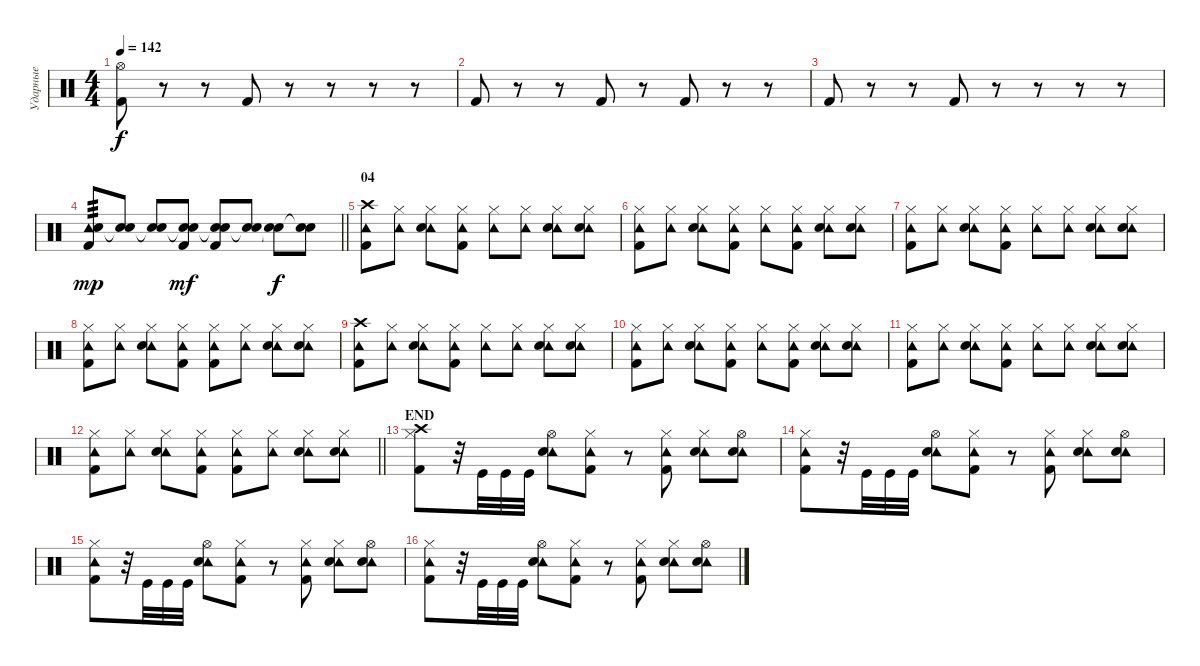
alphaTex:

\track ("Ударные" "Ударные") {instrument percussion}
\staff {score}
\articulation defaults
\ts (4 4)
\tempo 142
\clef neutral
\ks c
("Hi-Hat (open)" "Kick (hit) 2").8{dy f} r.8 r.8 "Kick (hit) 2".8 r.8 r.8 r.8 r.8 |
"Kick (hit) 2".8 r.8 r.8 "Kick (hit) 2".8 r.8 "Kick (hit) 2".8 r.8 r.8 |
"Kick (hit) 2".8 r.8 r.8 "Kick (hit) 2".8 r.8 r.8 r.8 r.8 |
\barLineRight lightlight
("Tambourine (hit)" "Electric Snare (hit)" "Kick (hit) 2").8{tp 3 dy mp} ("Snare (hit)"{t} "Electric Snare (hit)").8 ("Snare (hit)"{t} "Electric Snare (hit)").8 ("Snare (hit)"{t} "Electric Snare (hit)" "Kick (hit) 2").8{dy mf} ("Snare (hit)"{t} "Electric Snare (hit)" "Kick (hit) 2").8 ("Snare (hit)"{t} "Electric Snare (hit)").8 ("Snare (hit)"{t} "Electric Snare (hit)").8{dy f} ("Snare (hit)"{t} "Electric Snare (hit)").8 |
\section ("" "04")
("Crash high (hit)" "Tambourine (hit)" "Kick (hit) 2").8 ("Hi-Hat (closed)" "Tambourine (hit)").8 ("Hi-Hat (closed)" "Tambourine (hit)" "Electric Snare (hit)").8 ("Hi-Hat (closed)" "Tambourine (hit)" "Kick (hit) 2").8 ("Hi-Hat (closed)" "Tambourine (hit)").8 ("Hi-Hat (closed)" "Tambourine (hit)").8 ("Hi-Hat (closed)" "Tambourine (hit)" "Electric Snare (hit)").8 ("Hi-Hat (closed)" "Tambourine (hit)" "Electric Snare (hit)").8 |
("Hi-Hat (closed)" "Tambourine (hit)" "Kick (hit) 2").8 ("Hi-Hat (closed)" "Tambourine (hit)").8 ("Hi-Hat (closed)" "Tambourine (hit)" "Electric Snare (hit)").8 ("Hi-Hat (closed)" "Tambourine (hit)" "Kick (hit) 2").8 ("Hi-Hat (closed)" "Tambourine (hit)").8 ("Hi-Hat (closed)" "Tambourine (hit)" "Kick (hit) 2").8 ("Hi-Hat (closed)" "Tambourine (hit)" "Electric Snare (hit)").8 ("Hi-Hat (closed)" "Tambourine (hit)" "Electric Snare (hit)").8 |
("Hi-Hat (closed)" "Tambourine (hit)" "Kick (hit) 2").8 ("Hi-Hat (closed)" "Tambourine (hit)").8 ("Hi-Hat (closed)" "Tambourine (hit)" "Electric Snare (hit)").8 ("Hi-Hat (closed)" "Tambourine (hit)" "Kick (hit) 2").8 ("Hi-Hat (closed)" "Tambourine (hit)").8 ("Hi-Hat (closed)" "Tambourine (hit)").8 ("Hi-Hat (closed)" "Tambourine (hit)" "Electric Snare (hit)").8 ("Hi-Hat (closed)" "Tambourine (hit)" "Electric Snare (hit)").8 |
("Hi-Hat (closed)" "Tambourine (hit)" "Kick (hit) 2").8 ("Hi-Hat (closed)" "Tambourine (hit)").8 ("Hi-Hat (closed)" "Tambourine (hit)" "Electric Snare (hit)").8 ("Hi-Hat (closed)" "Tambourine (hit)" "Kick (hit) 2").8 ("Hi-Hat (closed)" "Tambourine (hit)" "Kick (hit) 2").8 ("Hi-Hat (closed)" "Tambourine (hit)").8 ("Hi-Hat (closed)" "Tambourine (hit)" "Electric Snare (hit)").8 ("Hi-Hat (closed)" "Tambourine (hit)" "Electric Snare (hit)").8 |
("Crash high (hit)" "Tambourine (hit)" "Kick (hit) 2").8 ("Hi-Hat (closed)" "Tambourine (hit)").8 ("Hi-Hat (closed)" "Tambourine (hit)" "Electric Snare (hit)").8 ("Hi-Hat (closed)" "Tambourine (hit)" "Kick (hit) 2").8 ("Hi-Hat (closed)" "Tambourine (hit)").8 ("Hi-Hat (closed)" "Tambourine (hit)").8 ("Hi-Hat (closed)" "Tambourine (hit)" "Electric Snare (hit)").8 ("Hi-Hat (closed)" "Tambourine (hit)" "Electric Snare (hit)").8 |
("Hi-Hat (closed)" "Tambourine (hit)" "Kick (hit) 2").8 ("Hi-Hat (closed)" "Tambourine (hit)").8 ("Hi-Hat (closed)" "Tambourine (hit)" "Electric Snare (hit)").8 ("Hi-Hat (closed)" "Tambourine (hit)" "Kick (hit) 2").8 ("Hi-Hat (closed)" "Tambourine (hit)").8 ("Hi-Hat (closed)" "Tambourine (hit)" "Kick (hit) 2").8 ("Hi-Hat (closed)" "Tambourine (hit)" "Electric Snare (hit)").8 ("Hi-Hat (closed)" "Tambourine (hit)" "Electric Snare (hit)").8 |
("Hi-Hat (closed)" "Tambourine (hit)" "Kick (hit) 2").8 ("Hi-Hat (closed)" "Tambourine (hit)").8 ("Hi-Hat (closed)" "Tambourine (hit)" "Electric Snare (hit)").8 ("Hi-Hat (closed)" "Tambourine (hit)" "Kick (hit) 2").8 ("Hi-Hat (closed)" "Tambourine (hit)").8 ("Hi-Hat (closed)" "Tambourine (hit)").8 ("Hi-Hat (closed)" "Tambourine (hit)" "Electric Snare (hit)").8 ("Hi-Hat (closed)" "Tambourine (hit)" "Electric Snare (hit)").8 |
\barLineRight lightlight
("Hi-Hat (closed)" "Tambourine (hit)" "Kick (hit) 2").8 ("Hi-Hat (closed)" "Tambourine (hit)").8 ("Hi-Hat (closed)" "Tambourine (hit)" "Electric Snare (hit)").8 ("Hi-Hat (closed)" "Tambourine (hit)" "Kick (hit) 2").8 ("Hi-Hat (closed)" "Tambourine (hit)" "Kick (hit) 2").8 ("Hi-Hat (closed)" "Tambourine (hit)").8 ("Hi-Hat (closed)" "Tambourine (hit)" "Electric Snare (hit)").8 ("Hi-Hat (closed)" "Tambourine (hit)" "Electric Snare (hit)").8 |
\section ("" "END")
("Crash high (hit)" "Hi-Hat (closed)" "Kick (hit) 2").8 r.32 "Kick (hit)".32 "Kick (hit)".32 "Kick (hit)".32 ("Tambourine (hit)" "Hi-Hat (open)" "Electric Snare (hit)").8 ("Tambourine (hit)" "Hi-Hat (closed)" "Kick (hit) 2").8 r.8 ("Tambourine (hit)" "Hi-Hat (closed)" "Kick (hit) 2").8 ("Tambourine (hit)" "Hi-Hat (closed)" "Electric Snare (hit)").8 ("Tambourine (hit)" "Hi-Hat (open)" "Electric Snare (hit)").8 |
("Tambourine (hit)" "Hi-Hat (closed)" "Kick (hit) 2").8 r.32 "Kick (hit)".32 "Kick (hit)".32 "Kick (hit)".32 ("Tambourine (hit)" "Hi-Hat (open)" "Electric Snare (hit)").8 ("Tambourine (hit)" "Hi-Hat (closed)" "Kick (hit) 2").8 r.8 ("Tambourine (hit)" "Hi-Hat (closed)" "Kick (hit) 2").8 ("Tambourine (hit)" "Hi-Hat (closed)" "Electric Snare (hit)").8 ("Tambourine (hit)" "Hi-Hat (open)" "Electric Snare (hit)").8 |
("Tambourine (hit)" "Hi-Hat (closed)" "Kick (hit) 2").8 r.32 "Kick (hit)".32 "Kick (hit)".32 "Kick (hit)".32 ("Tambourine (hit)" "Hi-Hat (open)" "Electric Snare (hit)").8 ("Tambourine (hit)" "Hi-Hat (closed)" "Kick (hit) 2").8 r.8 ("Tambourine (hit)" "Hi-Hat (closed)" "Kick (hit) 2").8 ("Tambourine (hit)" "Hi-Hat (closed)" "Electric Snare (hit)").8 ("Tambourine (hit)" "Hi-Hat (open)" "Electric Snare (hit)").8 |
("Tambourine (hit)" "Hi-Hat (closed)" "Kick (hit) 2").8 r.32 "Kick (hit)".32 "Kick (hit)".32 "Kick (hit)".32 ("Tambourine (hit)" "Hi-Hat (open)" "Electric Snare (hit)").8 ("Tambourine (hit)" "Hi-Hat (closed)" "Kick (hit) 2").8 r.8 ("Tambourine (hit)" "Hi-Hat (closed)" "Kick (hit) 2").8 ("Tambourine (hit)" "Hi-Hat (closed)" "Electric Snare (hit)").8 ("Tambourine (hit)" "Hi-Hat (open)" "Electric Snare (hit)").8
